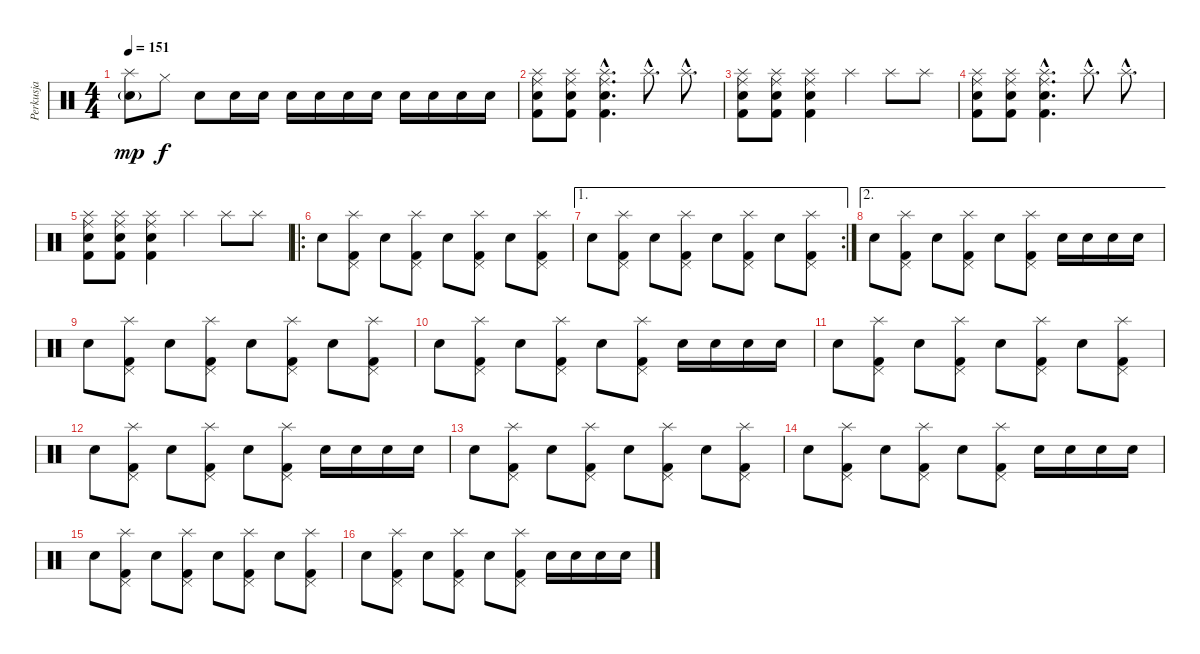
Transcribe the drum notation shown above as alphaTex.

\track ("Perkusja" "Perkusja") {instrument percussion}
\staff {score}
\articulation defaults
\ts (4 4)
\tempo 151
\clef neutral
\ks c
("Splash (hit)" "Snare (hit) 2"{g}).8{dy mp} "Hi-Hat (closed)".8{dy f} "Snare (hit) 2".8 "Snare (hit) 2".16 "Snare (hit) 2".16 "Snare (hit) 2".16 "Snare (hit) 2".16 "Snare (hit) 2".16 "Snare (hit) 2".16 "Snare (hit) 2".16 "Snare (hit) 2".16 "Snare (hit) 2".16 "Snare (hit) 2".16 |
("Ride (middle)" "Splash (hit)" "Snare (hit) 2" "Kick (hit) 2").8 ("Ride (middle)" "Splash (hit)" "Snare (hit) 2" "Kick (hit) 2").8 ("Ride (middle)"{hac} "Splash (hit)"{hac} "Snare (hit) 2"{hac} "Kick (hit) 2"{hac}).4{d} "Splash (hit)"{hac}.8{d} "Splash (hit)"{hac}.8{d} |
("Ride (middle)" "Splash (hit)" "Snare (hit) 2" "Kick (hit) 2").8 ("Ride (middle)" "Splash (hit)" "Snare (hit) 2" "Kick (hit) 2").8 ("Ride (middle)" "Splash (hit)" "Snare (hit) 2" "Kick (hit) 2").4 "Splash (hit)".4 "Splash (hit)".8 "Splash (hit)".8 |
("Ride (middle)" "Splash (hit)" "Snare (hit) 2" "Kick (hit) 2").8 ("Ride (middle)" "Splash (hit)" "Snare (hit) 2" "Kick (hit) 2").8 ("Ride (middle)"{hac} "Splash (hit)"{hac} "Snare (hit) 2"{hac} "Kick (hit) 2"{hac}).4{d} "Splash (hit)"{hac}.8{d} "Splash (hit)"{hac}.8{d} |
("Ride (middle)" "Splash (hit)" "Snare (hit) 2" "Kick (hit) 2").8 ("Ride (middle)" "Splash (hit)" "Snare (hit) 2" "Kick (hit) 2").8 ("Ride (middle)" "Splash (hit)" "Snare (hit) 2" "Kick (hit) 2").4 "Splash (hit)".4 "Splash (hit)".8 "Splash (hit)".8 |
\ro "Snare (hit) 2".8
("Splash (hit)" "Kick (hit) 2" "Pedal Hi-Hat (hit)").8 "Snare (hit) 2".8 ("Splash (hit)" "Kick (hit) 2" "Pedal Hi-Hat (hit)").8 "Snare (hit) 2".8 ("Splash (hit)" "Kick (hit) 2" "Pedal Hi-Hat (hit)").8 "Snare (hit) 2".8 ("Splash (hit)" "Kick (hit) 2" "Pedal Hi-Hat (hit)").8 |
\ae 1
\rc 2 "Snare (hit) 2".8
("Splash (hit)" "Kick (hit) 2" "Pedal Hi-Hat (hit)").8 "Snare (hit) 2".8 ("Splash (hit)" "Kick (hit) 2" "Pedal Hi-Hat (hit)").8 "Snare (hit) 2".8 ("Splash (hit)" "Kick (hit) 2" "Pedal Hi-Hat (hit)").8 "Snare (hit) 2".8 ("Splash (hit)" "Kick (hit) 2" "Pedal Hi-Hat (hit)").8 |
\ae 2 "Snare (hit) 2".8
("Splash (hit)" "Kick (hit) 2" "Pedal Hi-Hat (hit)").8 "Snare (hit) 2".8 ("Splash (hit)" "Kick (hit) 2" "Pedal Hi-Hat (hit)").8 "Snare (hit) 2".8 ("Splash (hit)" "Kick (hit) 2" "Pedal Hi-Hat (hit)").8 "Snare (hit) 2".16 "Snare (hit) 2".16 "Snare (hit) 2".16 "Snare (hit) 2".16 |
"Snare (hit) 2".8 ("Splash (hit)" "Kick (hit) 2" "Pedal Hi-Hat (hit)").8 "Snare (hit) 2".8 ("Splash (hit)" "Kick (hit) 2" "Pedal Hi-Hat (hit)").8 "Snare (hit) 2".8 ("Splash (hit)" "Kick (hit) 2" "Pedal Hi-Hat (hit)").8 "Snare (hit) 2".8 ("Splash (hit)" "Kick (hit) 2" "Pedal Hi-Hat (hit)").8 |
"Snare (hit) 2".8 ("Splash (hit)" "Kick (hit) 2" "Pedal Hi-Hat (hit)").8 "Snare (hit) 2".8 ("Splash (hit)" "Kick (hit) 2" "Pedal Hi-Hat (hit)").8 "Snare (hit) 2".8 ("Splash (hit)" "Kick (hit) 2" "Pedal Hi-Hat (hit)").8 "Snare (hit) 2".16 "Snare (hit) 2".16 "Snare (hit) 2".16 "Snare (hit) 2".16 |
"Snare (hit) 2".8 ("Splash (hit)" "Kick (hit) 2" "Pedal Hi-Hat (hit)").8 "Snare (hit) 2".8 ("Splash (hit)" "Kick (hit) 2" "Pedal Hi-Hat (hit)").8 "Snare (hit) 2".8 ("Splash (hit)" "Kick (hit) 2" "Pedal Hi-Hat (hit)").8 "Snare (hit) 2".8 ("Splash (hit)" "Kick (hit) 2" "Pedal Hi-Hat (hit)").8 |
"Snare (hit) 2".8 ("Splash (hit)" "Kick (hit) 2" "Pedal Hi-Hat (hit)").8 "Snare (hit) 2".8 ("Splash (hit)" "Kick (hit) 2" "Pedal Hi-Hat (hit)").8 "Snare (hit) 2".8 ("Splash (hit)" "Kick (hit) 2" "Pedal Hi-Hat (hit)").8 "Snare (hit) 2".16 "Snare (hit) 2".16 "Snare (hit) 2".16 "Snare (hit) 2".16 |
"Snare (hit) 2".8 ("Splash (hit)" "Kick (hit) 2" "Pedal Hi-Hat (hit)").8 "Snare (hit) 2".8 ("Splash (hit)" "Kick (hit) 2" "Pedal Hi-Hat (hit)").8 "Snare (hit) 2".8 ("Splash (hit)" "Kick (hit) 2" "Pedal Hi-Hat (hit)").8 "Snare (hit) 2".8 ("Splash (hit)" "Kick (hit) 2" "Pedal Hi-Hat (hit)").8 |
"Snare (hit) 2".8 ("Splash (hit)" "Kick (hit) 2" "Pedal Hi-Hat (hit)").8 "Snare (hit) 2".8 ("Splash (hit)" "Kick (hit) 2" "Pedal Hi-Hat (hit)").8 "Snare (hit) 2".8 ("Splash (hit)" "Kick (hit) 2" "Pedal Hi-Hat (hit)").8 "Snare (hit) 2".16 "Snare (hit) 2".16 "Snare (hit) 2".16 "Snare (hit) 2".16 |
"Snare (hit) 2".8 ("Splash (hit)" "Kick (hit) 2" "Pedal Hi-Hat (hit)").8 "Snare (hit) 2".8 ("Splash (hit)" "Kick (hit) 2" "Pedal Hi-Hat (hit)").8 "Snare (hit) 2".8 ("Splash (hit)" "Kick (hit) 2" "Pedal Hi-Hat (hit)").8 "Snare (hit) 2".8 ("Splash (hit)" "Kick (hit) 2" "Pedal Hi-Hat (hit)").8 |
"Snare (hit) 2".8 ("Splash (hit)" "Kick (hit) 2" "Pedal Hi-Hat (hit)").8 "Snare (hit) 2".8 ("Splash (hit)" "Kick (hit) 2" "Pedal Hi-Hat (hit)").8 "Snare (hit) 2".8 ("Splash (hit)" "Kick (hit) 2" "Pedal Hi-Hat (hit)").8 "Snare (hit) 2".16 "Snare (hit) 2".16 "Snare (hit) 2".16 "Snare (hit) 2".16
